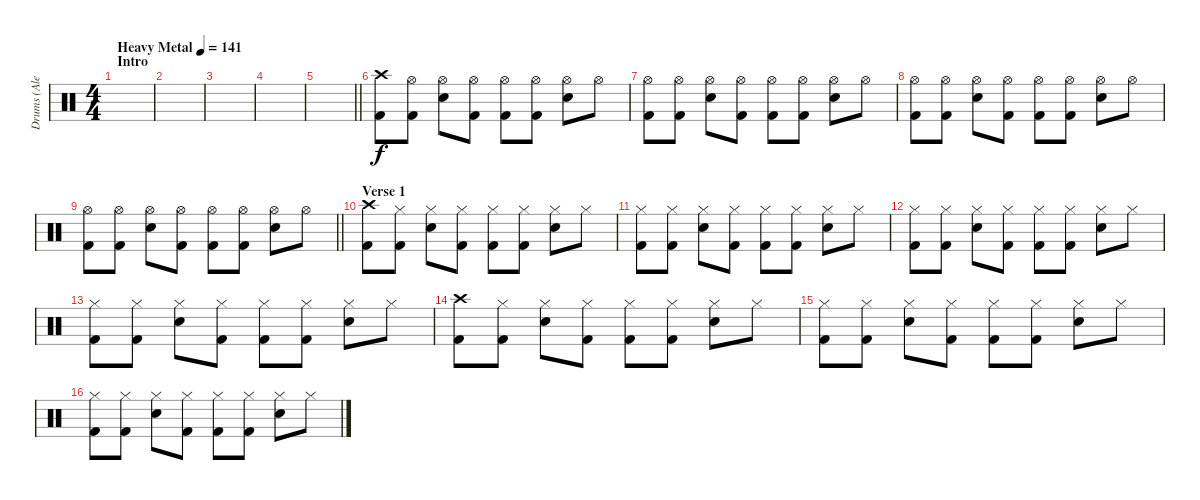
\track ("Drums (Alex Van Halen)" "Drums (Ale") {instrument percussion}
\staff {score}
\articulation defaults
\ts (4 4)
\section ("" "Intro")
\tempo (141 "Heavy Metal")
\clef neutral
\ks c
|
|
|
|
\barLineRight lightlight
|
("Crash high (hit)" "Kick (hit) 2").8 ("Hi-Hat (open)" "Kick (hit) 2").8 ("Hi-Hat (open)" "Electric Snare (hit)").8 ("Hi-Hat (open)" "Kick (hit) 2").8 ("Hi-Hat (open)" "Kick (hit) 2").8 ("Hi-Hat (open)" "Kick (hit) 2").8 ("Hi-Hat (open)" "Electric Snare (hit)").8 "Hi-Hat (open)".8 |
("Hi-Hat (open)" "Kick (hit) 2").8 ("Hi-Hat (open)" "Kick (hit) 2").8 ("Hi-Hat (open)" "Electric Snare (hit)").8 ("Hi-Hat (open)" "Kick (hit) 2").8 ("Hi-Hat (open)" "Kick (hit) 2").8 ("Hi-Hat (open)" "Kick (hit) 2").8 ("Hi-Hat (open)" "Electric Snare (hit)").8 "Hi-Hat (open)".8 |
("Hi-Hat (open)" "Kick (hit) 2").8 ("Hi-Hat (open)" "Kick (hit) 2").8 ("Hi-Hat (open)" "Electric Snare (hit)").8 ("Hi-Hat (open)" "Kick (hit) 2").8 ("Hi-Hat (open)" "Kick (hit) 2").8 ("Hi-Hat (open)" "Kick (hit) 2").8 ("Hi-Hat (open)" "Electric Snare (hit)").8 "Hi-Hat (open)".8 |
\barLineRight lightlight
("Hi-Hat (open)" "Kick (hit) 2").8 ("Hi-Hat (open)" "Kick (hit) 2").8 ("Hi-Hat (open)" "Electric Snare (hit)").8 ("Hi-Hat (open)" "Kick (hit) 2").8 ("Hi-Hat (open)" "Kick (hit) 2").8 ("Hi-Hat (open)" "Kick (hit) 2").8 ("Hi-Hat (open)" "Electric Snare (hit)").8 "Hi-Hat (open)".8 |
\section ("" "Verse 1")
("Crash high (hit)" "Kick (hit) 2").8 ("Hi-Hat (closed)" "Kick (hit) 2").8 ("Hi-Hat (closed)" "Electric Snare (hit)").8 ("Hi-Hat (closed)" "Kick (hit) 2").8 ("Hi-Hat (closed)" "Kick (hit) 2").8 ("Hi-Hat (closed)" "Kick (hit) 2").8 ("Hi-Hat (closed)" "Electric Snare (hit)").8 "Hi-Hat (closed)".8 |
("Hi-Hat (closed)" "Kick (hit) 2").8 ("Hi-Hat (closed)" "Kick (hit) 2").8 ("Hi-Hat (closed)" "Electric Snare (hit)").8 ("Hi-Hat (closed)" "Kick (hit) 2").8 ("Hi-Hat (closed)" "Kick (hit) 2").8 ("Hi-Hat (closed)" "Kick (hit) 2").8 ("Hi-Hat (closed)" "Electric Snare (hit)").8 "Hi-Hat (closed)".8 |
("Hi-Hat (closed)" "Kick (hit) 2").8 ("Hi-Hat (closed)" "Kick (hit) 2").8 ("Hi-Hat (closed)" "Electric Snare (hit)").8 ("Hi-Hat (closed)" "Kick (hit) 2").8 ("Hi-Hat (closed)" "Kick (hit) 2").8 ("Hi-Hat (closed)" "Kick (hit) 2").8 ("Hi-Hat (closed)" "Electric Snare (hit)").8 "Hi-Hat (closed)".8 |
("Hi-Hat (closed)" "Kick (hit) 2").8 ("Hi-Hat (closed)" "Kick (hit) 2").8 ("Hi-Hat (closed)" "Electric Snare (hit)").8 ("Hi-Hat (closed)" "Kick (hit) 2").8 ("Hi-Hat (closed)" "Kick (hit) 2").8 ("Hi-Hat (closed)" "Kick (hit) 2").8 ("Hi-Hat (closed)" "Electric Snare (hit)").8 "Hi-Hat (closed)".8 |
("Crash high (hit)" "Kick (hit) 2").8 ("Hi-Hat (closed)" "Kick (hit) 2").8 ("Hi-Hat (closed)" "Electric Snare (hit)").8 ("Hi-Hat (closed)" "Kick (hit) 2").8 ("Hi-Hat (closed)" "Kick (hit) 2").8 ("Hi-Hat (closed)" "Kick (hit) 2").8 ("Hi-Hat (closed)" "Electric Snare (hit)").8 "Hi-Hat (closed)".8 |
("Hi-Hat (closed)" "Kick (hit) 2").8 ("Hi-Hat (closed)" "Kick (hit) 2").8 ("Hi-Hat (closed)" "Electric Snare (hit)").8 ("Hi-Hat (closed)" "Kick (hit) 2").8 ("Hi-Hat (closed)" "Kick (hit) 2").8 ("Hi-Hat (closed)" "Kick (hit) 2").8 ("Hi-Hat (closed)" "Electric Snare (hit)").8 "Hi-Hat (closed)".8 |
("Hi-Hat (closed)" "Kick (hit) 2").8 ("Hi-Hat (closed)" "Kick (hit) 2").8 ("Hi-Hat (closed)" "Electric Snare (hit)").8 ("Hi-Hat (closed)" "Kick (hit) 2").8 ("Hi-Hat (closed)" "Kick (hit) 2").8 ("Hi-Hat (closed)" "Kick (hit) 2").8 ("Hi-Hat (closed)" "Electric Snare (hit)").8 "Hi-Hat (closed)".8
